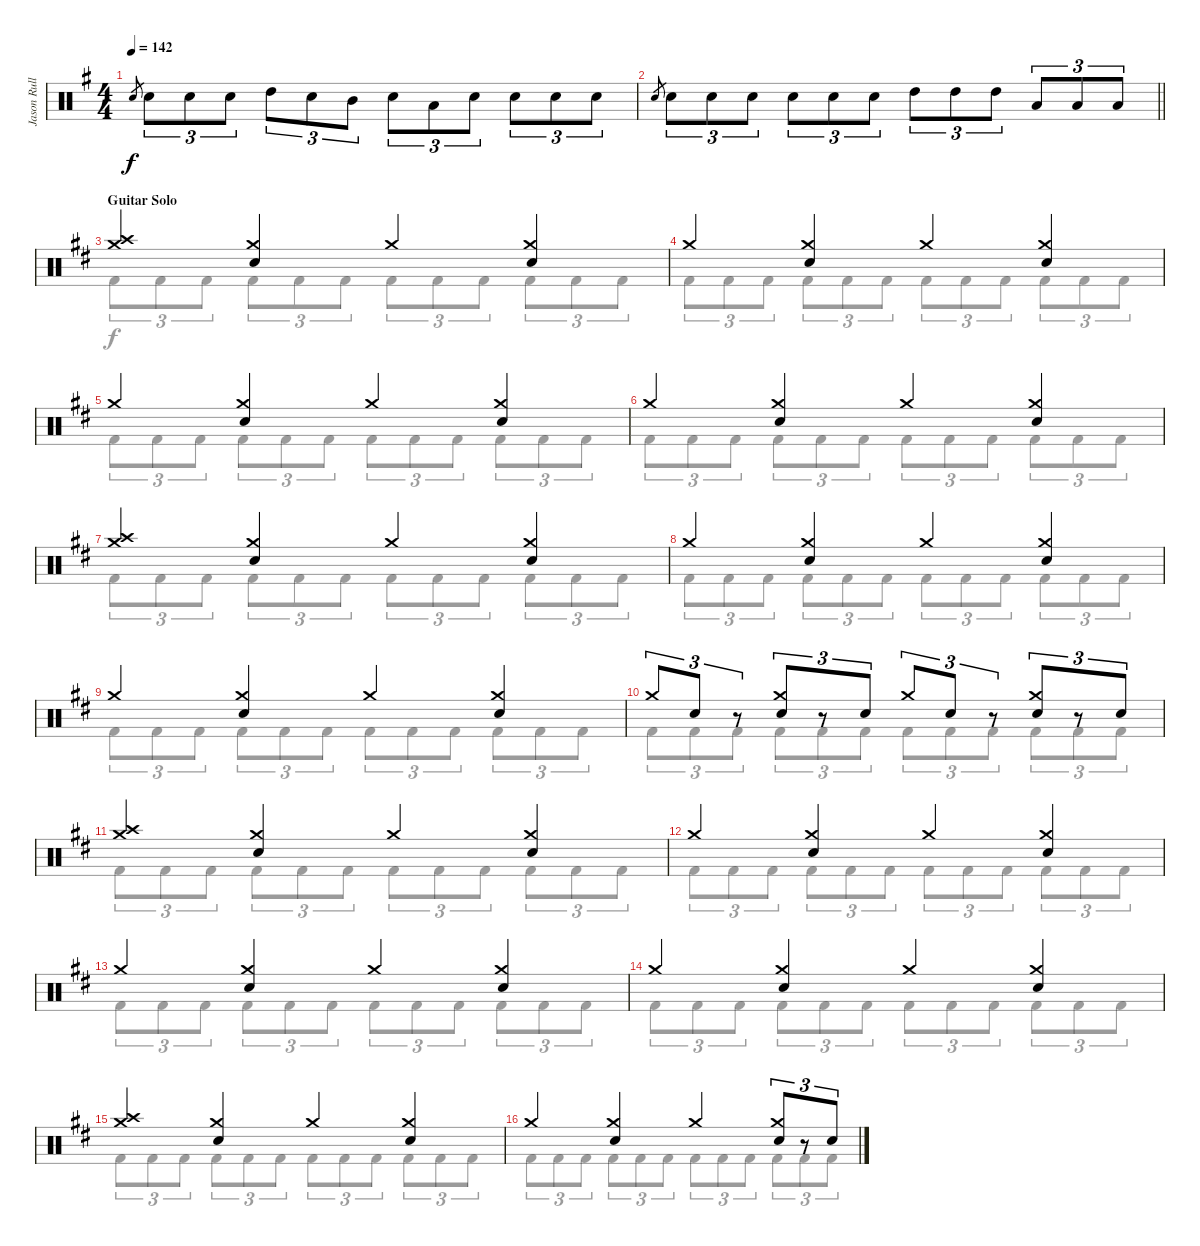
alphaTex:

\track ("Jason Rullo (drums)" "Jason Rull") {instrument percussion}
\staff {score}
\articulation defaults
\voice
\ts (4 4)
\tempo 142
\clef neutral
\ks eminor "Electric Snare (hit)".8{gr dy f} "Electric Snare (hit)".8{tu (3 2)} "Electric Snare (hit)".8{tu (3 2)} "Electric Snare (hit)".8{tu (3 2)} "High Tom (hit)".8{tu (3 2)} "Electric Snare (hit)".8{tu (3 2)} "Mid Tom (hit)".8{tu (3 2)} "Electric Snare (hit)".8{tu (3 2)} "Low Tom (hit)".8{tu (3 2)} "Electric Snare (hit)".8{tu (3 2)} "Electric Snare (hit)".8{tu (3 2)} "Electric Snare (hit)".8{tu (3 2)} "Electric Snare (hit)".8{tu (3 2)}
|
\barLineRight lightlight "Electric Snare (hit)".8{gr} "Electric Snare (hit)".8{tu (3 2)} "Electric Snare (hit)".8{tu (3 2)} "Electric Snare (hit)".8{tu (3 2)} "Electric Snare (hit)".8{tu (3 2)} "Electric Snare (hit)".8{tu (3 2)} "Electric Snare (hit)".8{tu (3 2)} "High Tom (hit)".8{tu (3 2)} "High Tom (hit)".8{tu (3 2)} "High Tom (hit)".8{tu (3 2)} "Low Tom (hit)".8{tu (3 2)} "Low Tom (hit)".8{tu (3 2)} "Low Tom (hit)".8{tu (3 2)}
|
\section ("" "Guitar Solo")
\ks bminor
("Crash high (hit)" "Crash medium (hit)").4 ("Electric Snare (hit)" "Crash medium (hit)").4 "Crash medium (hit)".4 ("Electric Snare (hit)" "Crash medium (hit)").4 |
"Crash medium (hit)".4 ("Electric Snare (hit)" "Crash medium (hit)").4 "Crash medium (hit)".4 ("Electric Snare (hit)" "Crash medium (hit)").4 |
"Crash medium (hit)".4 ("Electric Snare (hit)" "Crash medium (hit)").4 "Crash medium (hit)".4 ("Electric Snare (hit)" "Crash medium (hit)").4 |
"Crash medium (hit)".4 ("Electric Snare (hit)" "Crash medium (hit)").4 "Crash medium (hit)".4 ("Electric Snare (hit)" "Crash medium (hit)").4 |
("Crash high (hit)" "Crash medium (hit)").4 ("Electric Snare (hit)" "Crash medium (hit)").4 "Crash medium (hit)".4 ("Electric Snare (hit)" "Crash medium (hit)").4 |
"Crash medium (hit)".4 ("Electric Snare (hit)" "Crash medium (hit)").4 "Crash medium (hit)".4 ("Electric Snare (hit)" "Crash medium (hit)").4 |
"Crash medium (hit)".4 ("Electric Snare (hit)" "Crash medium (hit)").4 "Crash medium (hit)".4 ("Electric Snare (hit)" "Crash medium (hit)").4 |
"Crash medium (hit)".8{tu (3 2)} "Electric Snare (hit)".8{tu (3 2)} r.8{tu (3 2)} ("Electric Snare (hit)" "Crash medium (hit)").8{tu (3 2)} r.8{tu (3 2)} "Electric Snare (hit)".8{tu (3 2)} "Crash medium (hit)".8{tu (3 2)} "Electric Snare (hit)".8{tu (3 2)} r.8{tu (3 2)} ("Electric Snare (hit)" "Crash medium (hit)").8{tu (3 2)} r.8{tu (3 2)} "Electric Snare (hit)".8{tu (3 2)} |
("Crash high (hit)" "Crash medium (hit)").4 ("Electric Snare (hit)" "Crash medium (hit)").4 "Crash medium (hit)".4 ("Electric Snare (hit)" "Crash medium (hit)").4 |
"Crash medium (hit)".4 ("Electric Snare (hit)" "Crash medium (hit)").4 "Crash medium (hit)".4 ("Electric Snare (hit)" "Crash medium (hit)").4 |
"Crash medium (hit)".4 ("Electric Snare (hit)" "Crash medium (hit)").4 "Crash medium (hit)".4 ("Electric Snare (hit)" "Crash medium (hit)").4 |
"Crash medium (hit)".4 ("Electric Snare (hit)" "Crash medium (hit)").4 "Crash medium (hit)".4 ("Electric Snare (hit)" "Crash medium (hit)").4 |
("Crash high (hit)" "Crash medium (hit)").4 ("Electric Snare (hit)" "Crash medium (hit)").4 "Crash medium (hit)".4 ("Electric Snare (hit)" "Crash medium (hit)").4 |
"Crash medium (hit)".4 ("Electric Snare (hit)" "Crash medium (hit)").4 "Crash medium (hit)".4 ("Electric Snare (hit)" "Crash medium (hit)").8{tu (3 2)} r.8{tu (3 2)} "Electric Snare (hit)".8{tu (3 2)}
\voice
\clef neutral
\ottava regular
\simile none
\ks eminor
|
\barLineRight lightlight
|
\ks bminor "Kick (hit) 2".8{tu (3 2)} "Kick (hit) 2".8{tu (3 2)} "Kick (hit) 2".8{tu (3 2)} "Kick (hit) 2".8{tu (3 2)} "Kick (hit) 2".8{tu (3 2)} "Kick (hit) 2".8{tu (3 2)} "Kick (hit) 2".8{tu (3 2)} "Kick (hit) 2".8{tu (3 2)} "Kick (hit) 2".8{tu (3 2)} "Kick (hit) 2".8{tu (3 2)} "Kick (hit) 2".8{tu (3 2)} "Kick (hit) 2".8{tu (3 2)}
|
"Kick (hit) 2".8{tu (3 2)} "Kick (hit) 2".8{tu (3 2)} "Kick (hit) 2".8{tu (3 2)} "Kick (hit) 2".8{tu (3 2)} "Kick (hit) 2".8{tu (3 2)} "Kick (hit) 2".8{tu (3 2)} "Kick (hit) 2".8{tu (3 2)} "Kick (hit) 2".8{tu (3 2)} "Kick (hit) 2".8{tu (3 2)} "Kick (hit) 2".8{tu (3 2)} "Kick (hit) 2".8{tu (3 2)} "Kick (hit) 2".8{tu (3 2)} |
"Kick (hit) 2".8{tu (3 2)} "Kick (hit) 2".8{tu (3 2)} "Kick (hit) 2".8{tu (3 2)} "Kick (hit) 2".8{tu (3 2)} "Kick (hit) 2".8{tu (3 2)} "Kick (hit) 2".8{tu (3 2)} "Kick (hit) 2".8{tu (3 2)} "Kick (hit) 2".8{tu (3 2)} "Kick (hit) 2".8{tu (3 2)} "Kick (hit) 2".8{tu (3 2)} "Kick (hit) 2".8{tu (3 2)} "Kick (hit) 2".8{tu (3 2)} |
"Kick (hit) 2".8{tu (3 2)} "Kick (hit) 2".8{tu (3 2)} "Kick (hit) 2".8{tu (3 2)} "Kick (hit) 2".8{tu (3 2)} "Kick (hit) 2".8{tu (3 2)} "Kick (hit) 2".8{tu (3 2)} "Kick (hit) 2".8{tu (3 2)} "Kick (hit) 2".8{tu (3 2)} "Kick (hit) 2".8{tu (3 2)} "Kick (hit) 2".8{tu (3 2)} "Kick (hit) 2".8{tu (3 2)} "Kick (hit) 2".8{tu (3 2)} |
"Kick (hit) 2".8{tu (3 2)} "Kick (hit) 2".8{tu (3 2)} "Kick (hit) 2".8{tu (3 2)} "Kick (hit) 2".8{tu (3 2)} "Kick (hit) 2".8{tu (3 2)} "Kick (hit) 2".8{tu (3 2)} "Kick (hit) 2".8{tu (3 2)} "Kick (hit) 2".8{tu (3 2)} "Kick (hit) 2".8{tu (3 2)} "Kick (hit) 2".8{tu (3 2)} "Kick (hit) 2".8{tu (3 2)} "Kick (hit) 2".8{tu (3 2)} |
"Kick (hit) 2".8{tu (3 2)} "Kick (hit) 2".8{tu (3 2)} "Kick (hit) 2".8{tu (3 2)} "Kick (hit) 2".8{tu (3 2)} "Kick (hit) 2".8{tu (3 2)} "Kick (hit) 2".8{tu (3 2)} "Kick (hit) 2".8{tu (3 2)} "Kick (hit) 2".8{tu (3 2)} "Kick (hit) 2".8{tu (3 2)} "Kick (hit) 2".8{tu (3 2)} "Kick (hit) 2".8{tu (3 2)} "Kick (hit) 2".8{tu (3 2)} |
"Kick (hit) 2".8{tu (3 2)} "Kick (hit) 2".8{tu (3 2)} "Kick (hit) 2".8{tu (3 2)} "Kick (hit) 2".8{tu (3 2)} "Kick (hit) 2".8{tu (3 2)} "Kick (hit) 2".8{tu (3 2)} "Kick (hit) 2".8{tu (3 2)} "Kick (hit) 2".8{tu (3 2)} "Kick (hit) 2".8{tu (3 2)} "Kick (hit) 2".8{tu (3 2)} "Kick (hit) 2".8{tu (3 2)} "Kick (hit) 2".8{tu (3 2)} |
"Kick (hit) 2".8{tu (3 2)} "Kick (hit) 2".8{tu (3 2)} "Kick (hit) 2".8{tu (3 2)} "Kick (hit) 2".8{tu (3 2)} "Kick (hit) 2".8{tu (3 2)} "Kick (hit) 2".8{tu (3 2)} "Kick (hit) 2".8{tu (3 2)} "Kick (hit) 2".8{tu (3 2)} "Kick (hit) 2".8{tu (3 2)} "Kick (hit) 2".8{tu (3 2)} "Kick (hit) 2".8{tu (3 2)} "Kick (hit) 2".8{tu (3 2)} |
"Kick (hit) 2".8{tu (3 2)} "Kick (hit) 2".8{tu (3 2)} "Kick (hit) 2".8{tu (3 2)} "Kick (hit) 2".8{tu (3 2)} "Kick (hit) 2".8{tu (3 2)} "Kick (hit) 2".8{tu (3 2)} "Kick (hit) 2".8{tu (3 2)} "Kick (hit) 2".8{tu (3 2)} "Kick (hit) 2".8{tu (3 2)} "Kick (hit) 2".8{tu (3 2)} "Kick (hit) 2".8{tu (3 2)} "Kick (hit) 2".8{tu (3 2)} |
"Kick (hit) 2".8{tu (3 2)} "Kick (hit) 2".8{tu (3 2)} "Kick (hit) 2".8{tu (3 2)} "Kick (hit) 2".8{tu (3 2)} "Kick (hit) 2".8{tu (3 2)} "Kick (hit) 2".8{tu (3 2)} "Kick (hit) 2".8{tu (3 2)} "Kick (hit) 2".8{tu (3 2)} "Kick (hit) 2".8{tu (3 2)} "Kick (hit) 2".8{tu (3 2)} "Kick (hit) 2".8{tu (3 2)} "Kick (hit) 2".8{tu (3 2)} |
"Kick (hit) 2".8{tu (3 2)} "Kick (hit) 2".8{tu (3 2)} "Kick (hit) 2".8{tu (3 2)} "Kick (hit) 2".8{tu (3 2)} "Kick (hit) 2".8{tu (3 2)} "Kick (hit) 2".8{tu (3 2)} "Kick (hit) 2".8{tu (3 2)} "Kick (hit) 2".8{tu (3 2)} "Kick (hit) 2".8{tu (3 2)} "Kick (hit) 2".8{tu (3 2)} "Kick (hit) 2".8{tu (3 2)} "Kick (hit) 2".8{tu (3 2)} |
"Kick (hit) 2".8{tu (3 2)} "Kick (hit) 2".8{tu (3 2)} "Kick (hit) 2".8{tu (3 2)} "Kick (hit) 2".8{tu (3 2)} "Kick (hit) 2".8{tu (3 2)} "Kick (hit) 2".8{tu (3 2)} "Kick (hit) 2".8{tu (3 2)} "Kick (hit) 2".8{tu (3 2)} "Kick (hit) 2".8{tu (3 2)} "Kick (hit) 2".8{tu (3 2)} "Kick (hit) 2".8{tu (3 2)} "Kick (hit) 2".8{tu (3 2)} |
"Kick (hit) 2".8{tu (3 2)} "Kick (hit) 2".8{tu (3 2)} "Kick (hit) 2".8{tu (3 2)} "Kick (hit) 2".8{tu (3 2)} "Kick (hit) 2".8{tu (3 2)} "Kick (hit) 2".8{tu (3 2)} "Kick (hit) 2".8{tu (3 2)} "Kick (hit) 2".8{tu (3 2)} "Kick (hit) 2".8{tu (3 2)} "Kick (hit) 2".8{tu (3 2)} "Kick (hit) 2".8{tu (3 2)} "Kick (hit) 2".8{tu (3 2)} |
"Kick (hit) 2".8{tu (3 2)} "Kick (hit) 2".8{tu (3 2)} "Kick (hit) 2".8{tu (3 2)} "Kick (hit) 2".8{tu (3 2)} "Kick (hit) 2".8{tu (3 2)} "Kick (hit) 2".8{tu (3 2)} "Kick (hit) 2".8{tu (3 2)} "Kick (hit) 2".8{tu (3 2)} "Kick (hit) 2".8{tu (3 2)} "Kick (hit) 2".8{tu (3 2)} "Kick (hit) 2".8{tu (3 2)} "Kick (hit) 2".8{tu (3 2)}
